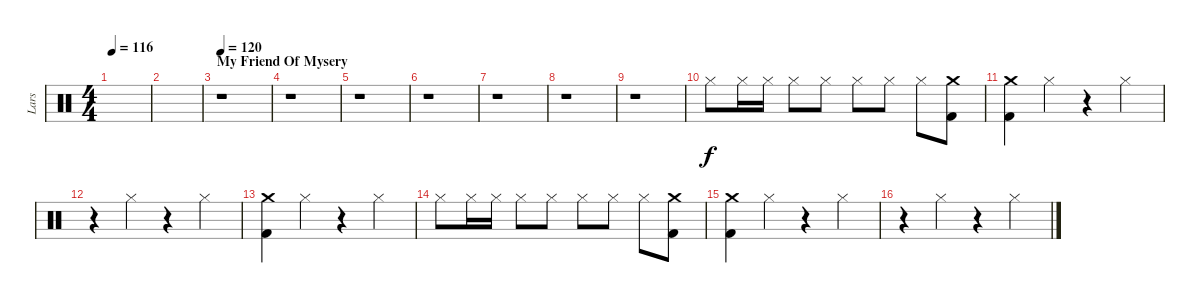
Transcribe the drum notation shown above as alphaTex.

\track ("Lars" "Lars") {instrument percussion}
\staff {score}
\articulation defaults
\ts (4 4)
\tempo 116
\clef neutral
\ks c
|
|
\section ("" "My Friend Of Mysery")
\tempo 120
r.1 |
r.1 |
r.1 |
r.1 |
r.1 |
r.1 |
r.1 |
"Hi-Hat (closed)".8 "Hi-Hat (closed)".16 "Hi-Hat (closed)".16 "Hi-Hat (closed)".8 "Hi-Hat (closed)".8 "Hi-Hat (closed)".8 "Hi-Hat (closed)".8 "Hi-Hat (closed)".8 ("Kick (hit) 2" "Crash medium (hit)").8 |
("Kick (hit) 2" "Crash medium (hit)").4 "Hi-Hat (closed)".4 r.4 "Hi-Hat (closed)".4 |
r.4 "Hi-Hat (closed)".4 r.4 "Hi-Hat (closed)".4 |
("Kick (hit) 2" "Crash medium (hit)").4 "Hi-Hat (closed)".4 r.4 "Hi-Hat (closed)".4 |
"Hi-Hat (closed)".8 "Hi-Hat (closed)".16 "Hi-Hat (closed)".16 "Hi-Hat (closed)".8 "Hi-Hat (closed)".8 "Hi-Hat (closed)".8 "Hi-Hat (closed)".8 "Hi-Hat (closed)".8 ("Kick (hit) 2" "Crash medium (hit)").8 |
("Kick (hit) 2" "Crash medium (hit)").4 "Hi-Hat (closed)".4 r.4 "Hi-Hat (closed)".4 |
r.4 "Hi-Hat (closed)".4 r.4 "Hi-Hat (closed)".4
